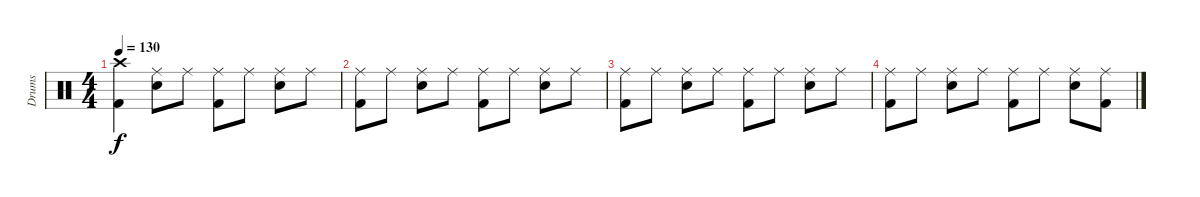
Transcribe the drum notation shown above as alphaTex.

\track ("Drums" "Drums") {instrument percussion}
\staff {score}
\articulation defaults
\ts (4 4)
\tempo 130
\clef neutral
\ks c
("Crash high (hit)" "Kick (hit) 2").4{dy f} ("Ride (middle)" "Electric Snare (hit)").8 "Ride (middle)".8 ("Ride (middle)" "Kick (hit) 2").8 "Ride (middle)".8 ("Ride (middle)" "Electric Snare (hit)").8 "Ride (middle)".8 |
("Ride (middle)" "Kick (hit) 2").8 "Ride (middle)".8 ("Ride (middle)" "Electric Snare (hit)").8 "Ride (middle)".8 ("Ride (middle)" "Kick (hit) 2").8 "Ride (middle)".8 ("Ride (middle)" "Electric Snare (hit)").8 "Ride (middle)".8 |
("Ride (middle)" "Kick (hit) 2").8 "Ride (middle)".8 ("Ride (middle)" "Electric Snare (hit)").8 "Ride (middle)".8 ("Ride (middle)" "Kick (hit) 2").8 "Ride (middle)".8 ("Ride (middle)" "Electric Snare (hit)").8 "Ride (middle)".8 |
("Ride (middle)" "Kick (hit) 2").8 "Ride (middle)".8 ("Ride (middle)" "Electric Snare (hit)").8 "Ride (middle)".8 ("Ride (middle)" "Kick (hit) 2").8 "Ride (middle)".8 ("Ride (middle)" "Electric Snare (hit)").8 ("Ride (middle)" "Kick (hit) 2").8
